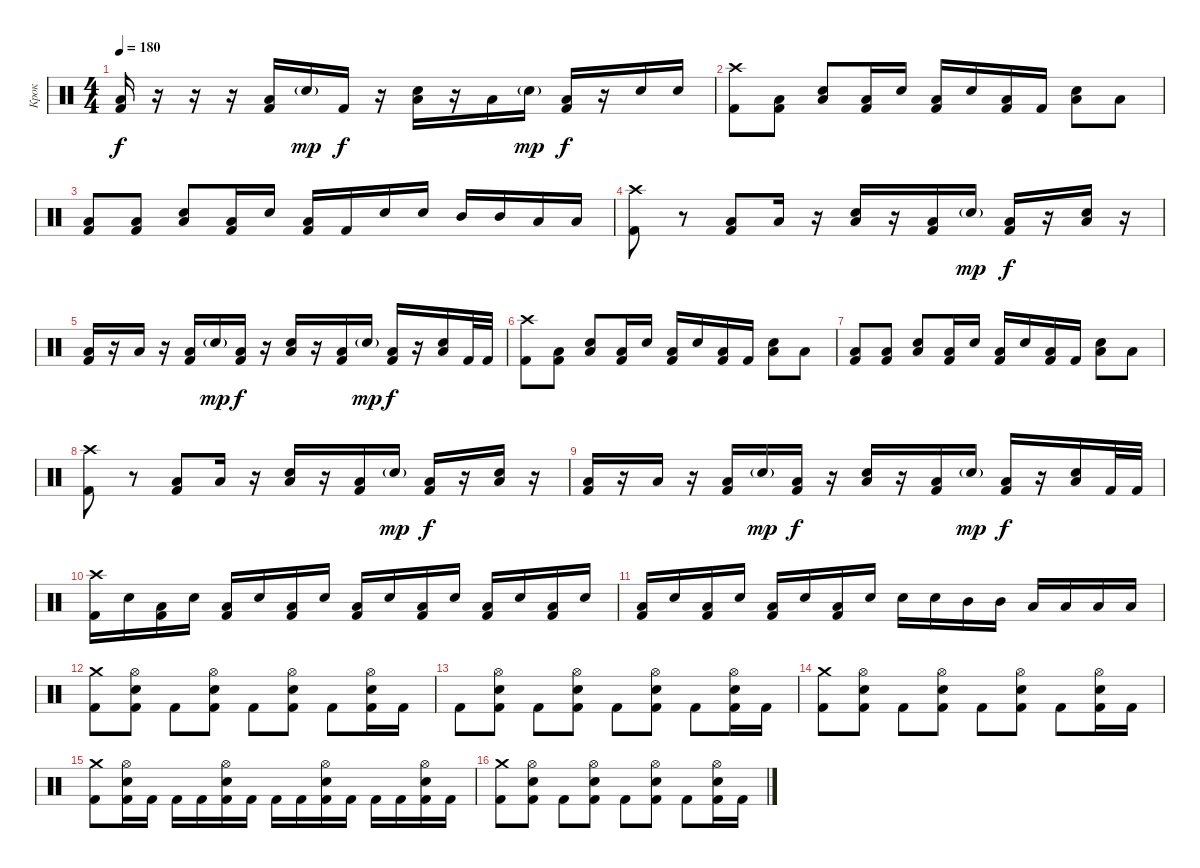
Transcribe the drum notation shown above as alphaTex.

\track ("Крок" "Крок") {instrument percussion}
\staff {score}
\articulation defaults
\ts (4 4)
\tempo 180
\clef neutral
\ks c
("Kick (hit) 2" "Low Floor Tom (hit)").16{dy f} r.16 r.16 r.16 ("Kick (hit) 2" "Low Floor Tom (hit)").16 "Electric Snare (hit)"{g}.16{dy mp} "Kick (hit) 2".16{dy f} r.16 ("Electric Snare (hit)" "Low Tom (hit)").16 r.16 "Low Tom (hit)".16 "Electric Snare (hit)"{g}.16{dy mp} ("Kick (hit) 2" "Low Floor Tom (hit)").16{dy f} r.16 "Electric Snare (hit)".16 "Electric Snare (hit)".16 |
("Kick (hit) 2" "Crash high (hit)").8 ("Kick (hit) 2" "Low Floor Tom (hit)").8 ("Electric Snare (hit)" "Low Floor Tom (hit)").8 ("Kick (hit) 2" "Low Floor Tom (hit)").16 "Electric Snare (hit)".16 ("Kick (hit) 2" "Low Floor Tom (hit)").16 "Electric Snare (hit)".16 ("Kick (hit) 2" "Low Floor Tom (hit)").16 "Kick (hit) 2".16 ("Electric Snare (hit)" "Low Floor Tom (hit)").8 "Low Floor Tom (hit)".8 |
("Kick (hit) 2" "Low Tom (hit)").8 ("Kick (hit) 2" "Low Tom (hit)").8 ("Electric Snare (hit)" "Low Tom (hit)").8 ("Kick (hit) 2" "Low Tom (hit)").16 "Electric Snare (hit)".16 ("Kick (hit) 2" "Low Tom (hit)").16 "Kick (hit) 2".16 "Electric Snare (hit)".16 "Electric Snare (hit)".16 "Mid Tom (hit)".16 "Mid Tom (hit)".16 "Low Tom (hit)".16 "Low Tom (hit)".16 |
("Crash high (hit)" "Kick (hit) 2").8 r.8 ("Kick (hit) 2" "Low Floor Tom (hit)").8 "Low Floor Tom (hit)".16 r.16 ("Electric Snare (hit)" "Low Floor Tom (hit)").16 r.16 ("Kick (hit) 2" "Low Floor Tom (hit)").16 "Electric Snare (hit)"{g}.16{dy mp} ("Kick (hit) 2" "Low Floor Tom (hit)").16{dy f} r.16 ("Electric Snare (hit)" "Low Floor Tom (hit)").16 r.16 |
("Kick (hit) 2" "Low Floor Tom (hit)").16 r.16 "Low Floor Tom (hit)".16 r.16 ("Kick (hit) 2" "Low Floor Tom (hit)").16 "Electric Snare (hit)"{g}.16{dy mp} ("Kick (hit) 2" "Low Floor Tom (hit)").16{dy f} r.16 ("Electric Snare (hit)" "Low Floor Tom (hit)").16 r.16 ("Kick (hit) 2" "Low Floor Tom (hit)").16 "Electric Snare (hit)"{g}.16{dy mp} ("Kick (hit) 2" "Low Floor Tom (hit)").16{dy f} r.16 ("Electric Snare (hit)" "Low Floor Tom (hit)").16 "Kick (hit) 2".32 "Kick (hit) 2".32 |
("Kick (hit) 2" "Crash high (hit)").8 ("Kick (hit) 2" "Low Floor Tom (hit)").8 ("Electric Snare (hit)" "Low Floor Tom (hit)").8 ("Kick (hit) 2" "Low Floor Tom (hit)").16 "Electric Snare (hit)".16 ("Kick (hit) 2" "Low Floor Tom (hit)").16 "Electric Snare (hit)".16 ("Kick (hit) 2" "Low Floor Tom (hit)").16 "Kick (hit) 2".16 ("Electric Snare (hit)" "Low Floor Tom (hit)").8 "Low Floor Tom (hit)".8 |
("Kick (hit) 2" "Low Tom (hit)").8 ("Kick (hit) 2" "Low Tom (hit)").8 ("Electric Snare (hit)" "Low Tom (hit)").8 ("Kick (hit) 2" "Low Tom (hit)").16 "Electric Snare (hit)".16 ("Kick (hit) 2" "Low Tom (hit)").16 "Electric Snare (hit)".16 ("Kick (hit) 2" "Low Tom (hit)").16 "Kick (hit) 2".16 ("Electric Snare (hit)" "Low Tom (hit)").8 "Low Tom (hit)".8 |
("Crash high (hit)" "Kick (hit) 2").8 r.8 ("Kick (hit) 2" "Low Floor Tom (hit)").8 "Low Floor Tom (hit)".16 r.16 ("Electric Snare (hit)" "Low Floor Tom (hit)").16 r.16 ("Kick (hit) 2" "Low Floor Tom (hit)").16 "Electric Snare (hit)"{g}.16{dy mp} ("Kick (hit) 2" "Low Floor Tom (hit)").16{dy f} r.16 ("Electric Snare (hit)" "Low Floor Tom (hit)").16 r.16 |
("Kick (hit) 2" "Low Floor Tom (hit)").16 r.16 "Low Floor Tom (hit)".16 r.16 ("Kick (hit) 2" "Low Floor Tom (hit)").16 "Electric Snare (hit)"{g}.16{dy mp} ("Kick (hit) 2" "Low Floor Tom (hit)").16{dy f} r.16 ("Electric Snare (hit)" "Low Floor Tom (hit)").16 r.16 ("Kick (hit) 2" "Low Floor Tom (hit)").16 "Electric Snare (hit)"{g}.16{dy mp} ("Kick (hit) 2" "Low Floor Tom (hit)").16{dy f} r.16 ("Electric Snare (hit)" "Low Floor Tom (hit)").16 "Kick (hit) 2".32 "Kick (hit) 2".32 |
("Kick (hit) 2" "Crash high (hit)").16 "Electric Snare (hit)".16 ("Kick (hit) 2" "Low Floor Tom (hit)").16 "Electric Snare (hit)".16 ("Kick (hit) 2" "Low Floor Tom (hit)").16 "Electric Snare (hit)".16 ("Kick (hit) 2" "Low Floor Tom (hit)").16 "Electric Snare (hit)".16 ("Kick (hit) 2" "Low Floor Tom (hit)").16 "Electric Snare (hit)".16 ("Kick (hit) 2" "Low Floor Tom (hit)").16 "Electric Snare (hit)".16 ("Kick (hit) 2" "Low Floor Tom (hit)").16 "Electric Snare (hit)".16 ("Kick (hit) 2" "Low Floor Tom (hit)").16 "Electric Snare (hit)".16 |
("Kick (hit) 2" "Low Floor Tom (hit)").16 "Electric Snare (hit)".16 ("Kick (hit) 2" "Low Floor Tom (hit)").16 "Electric Snare (hit)".16 ("Kick (hit) 2" "Low Floor Tom (hit)").16 "Electric Snare (hit)".16 ("Kick (hit) 2" "Low Floor Tom (hit)").16 "Electric Snare (hit)".16 "Electric Snare (hit)".16 "Electric Snare (hit)".16 "Mid Tom (hit)".16 "Mid Tom (hit)".16 "Low Tom (hit)".16 "Low Tom (hit)".16 "Low Tom (hit)".16 "Low Tom (hit)".16 |
("Kick (hit) 2" "Crash medium (hit)").8 ("Kick (hit) 2" "Electric Snare (hit)" "Hi-Hat (open)").8 "Kick (hit) 2".8 ("Kick (hit) 2" "Electric Snare (hit)" "Hi-Hat (open)").8 "Kick (hit) 2".8 ("Kick (hit) 2" "Electric Snare (hit)" "Hi-Hat (open)").8 "Kick (hit) 2".8 ("Kick (hit) 2" "Electric Snare (hit)" "Hi-Hat (open)").16 "Kick (hit) 2".16 |
"Kick (hit) 2".8 ("Kick (hit) 2" "Electric Snare (hit)" "Hi-Hat (open)").8 "Kick (hit) 2".8 ("Kick (hit) 2" "Electric Snare (hit)" "Hi-Hat (open)").8 "Kick (hit) 2".8 ("Kick (hit) 2" "Electric Snare (hit)" "Hi-Hat (open)").8 "Kick (hit) 2".8 ("Kick (hit) 2" "Electric Snare (hit)" "Hi-Hat (open)").16 "Kick (hit) 2".16 |
("Kick (hit) 2" "Crash medium (hit)").8 ("Kick (hit) 2" "Electric Snare (hit)" "Hi-Hat (open)").8 "Kick (hit) 2".8 ("Kick (hit) 2" "Electric Snare (hit)" "Hi-Hat (open)").8 "Kick (hit) 2".8 ("Kick (hit) 2" "Electric Snare (hit)" "Hi-Hat (open)").8 "Kick (hit) 2".8 ("Kick (hit) 2" "Electric Snare (hit)" "Hi-Hat (open)").16 "Kick (hit) 2".16 |
("Kick (hit) 2" "Crash medium (hit)").8 ("Kick (hit) 2" "Electric Snare (hit)" "Hi-Hat (open)").16 "Kick (hit) 2".16 "Kick (hit) 2".16 "Kick (hit) 2".16 ("Kick (hit) 2" "Electric Snare (hit)" "Hi-Hat (open)").16 "Kick (hit) 2".16 "Kick (hit) 2".16 "Kick (hit) 2".16 ("Kick (hit) 2" "Electric Snare (hit)" "Hi-Hat (open)").16 "Kick (hit) 2".16 "Kick (hit) 2".16 "Kick (hit) 2".16 ("Kick (hit) 2" "Electric Snare (hit)" "Hi-Hat (open)").16 "Kick (hit) 2".16 |
("Kick (hit) 2" "Crash medium (hit)").8 ("Kick (hit) 2" "Electric Snare (hit)" "Hi-Hat (open)").8 "Kick (hit) 2".8 ("Kick (hit) 2" "Electric Snare (hit)" "Hi-Hat (open)").8 "Kick (hit) 2".8 ("Kick (hit) 2" "Electric Snare (hit)" "Hi-Hat (open)").8 "Kick (hit) 2".8 ("Kick (hit) 2" "Electric Snare (hit)" "Hi-Hat (open)").16 "Kick (hit) 2".16
